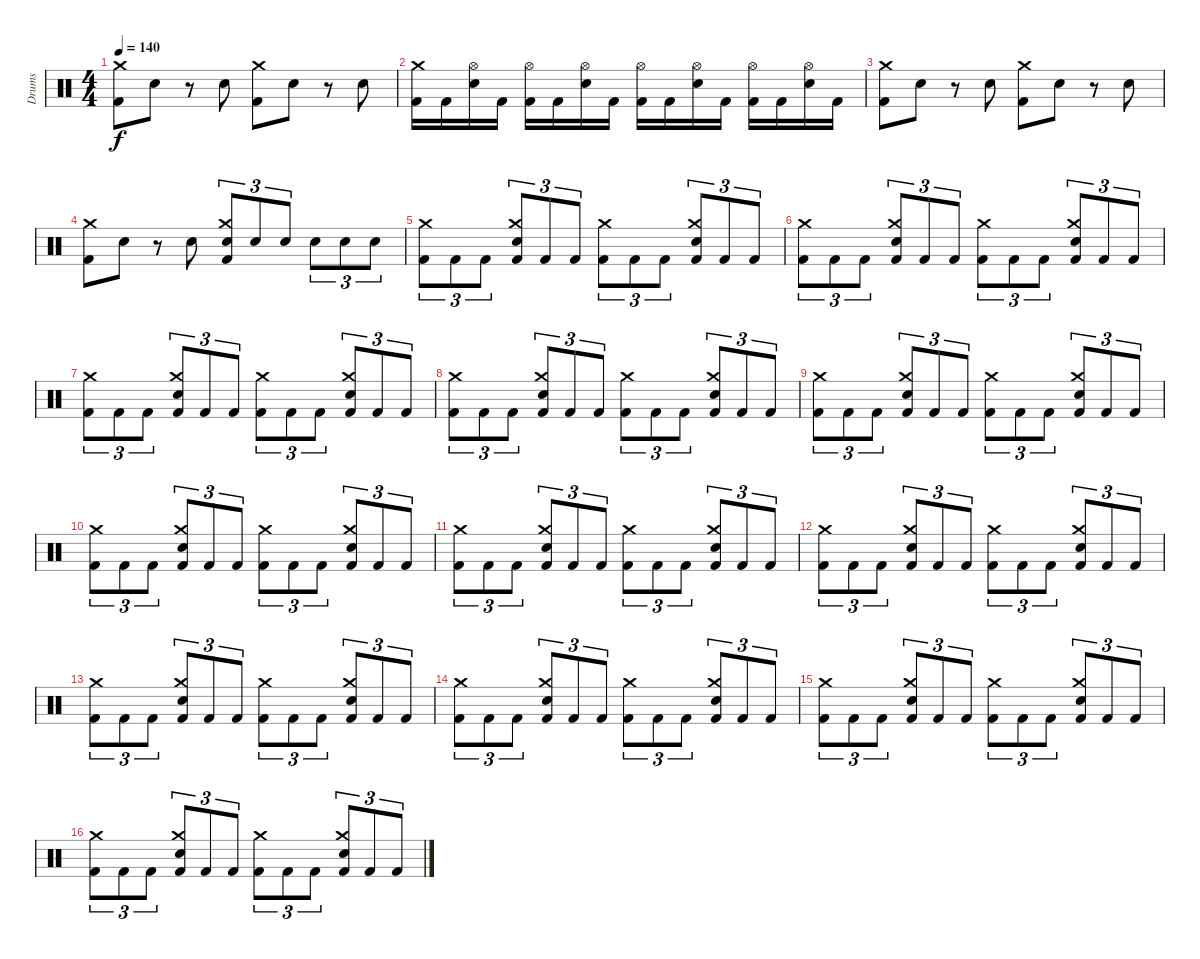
\track ("Drums" "Drums") {instrument percussion}
\staff {score}
\articulation defaults
\ts (4 4)
\tempo 140
\clef neutral
\ks c
("Kick (hit) 2" "Crash medium (hit)").8{dy f} "Electric Snare (hit)".8 r.8 "Electric Snare (hit)".8 ("Kick (hit) 2" "Crash medium (hit)").8 "Electric Snare (hit)".8 r.8 "Electric Snare (hit)".8 |
("Kick (hit) 2" "Crash medium (hit)").16 "Kick (hit) 2".16 ("Electric Snare (hit)" "Hi-Hat (open)").16 "Kick (hit) 2".16 ("Kick (hit) 2" "Hi-Hat (open)").16 "Kick (hit) 2".16 ("Electric Snare (hit)" "Hi-Hat (open)").16 "Kick (hit) 2".16 ("Kick (hit) 2" "Hi-Hat (open)").16 "Kick (hit) 2".16 ("Electric Snare (hit)" "Hi-Hat (open)").16 "Kick (hit) 2".16 ("Kick (hit) 2" "Hi-Hat (open)").16 "Kick (hit) 2".16 ("Electric Snare (hit)" "Hi-Hat (open)").16 "Kick (hit) 2".16 |
("Kick (hit) 2" "Crash medium (hit)").8 "Electric Snare (hit)".8 r.8 "Electric Snare (hit)".8 ("Kick (hit) 2" "Crash medium (hit)").8 "Electric Snare (hit)".8 r.8 "Electric Snare (hit)".8 |
("Kick (hit) 2" "Crash medium (hit)").8 "Electric Snare (hit)".8 r.8 "Electric Snare (hit)".8 ("Kick (hit) 2" "Crash medium (hit)" "Electric Snare (hit)").8{tu (3 2)} "Electric Snare (hit)".8{tu (3 2)} "Electric Snare (hit)".8{tu (3 2)} "Electric Snare (hit)".8{tu (3 2)} "Electric Snare (hit)".8{tu (3 2)} "Electric Snare (hit)".8{tu (3 2)} |
("Kick (hit) 2" "Crash medium (hit)").8{tu (3 2)} "Kick (hit) 2".8{tu (3 2)} "Kick (hit) 2".8{tu (3 2)} ("Electric Snare (hit)" "Kick (hit) 2" "Crash medium (hit)").8{tu (3 2)} "Kick (hit) 2".8{tu (3 2)} "Kick (hit) 2".8{tu (3 2)} ("Kick (hit) 2" "Crash medium (hit)").8{tu (3 2)} "Kick (hit) 2".8{tu (3 2)} "Kick (hit) 2".8{tu (3 2)} ("Electric Snare (hit)" "Kick (hit) 2" "Crash medium (hit)").8{tu (3 2)} "Kick (hit) 2".8{tu (3 2)} "Kick (hit) 2".8{tu (3 2)} |
("Kick (hit) 2" "Crash medium (hit)").8{tu (3 2)} "Kick (hit) 2".8{tu (3 2)} "Kick (hit) 2".8{tu (3 2)} ("Electric Snare (hit)" "Kick (hit) 2" "Crash medium (hit)").8{tu (3 2)} "Kick (hit) 2".8{tu (3 2)} "Kick (hit) 2".8{tu (3 2)} ("Kick (hit) 2" "Crash medium (hit)").8{tu (3 2)} "Kick (hit) 2".8{tu (3 2)} "Kick (hit) 2".8{tu (3 2)} ("Electric Snare (hit)" "Kick (hit) 2" "Crash medium (hit)").8{tu (3 2)} "Kick (hit) 2".8{tu (3 2)} "Kick (hit) 2".8{tu (3 2)} |
("Kick (hit) 2" "Crash medium (hit)").8{tu (3 2)} "Kick (hit) 2".8{tu (3 2)} "Kick (hit) 2".8{tu (3 2)} ("Electric Snare (hit)" "Kick (hit) 2" "Crash medium (hit)").8{tu (3 2)} "Kick (hit) 2".8{tu (3 2)} "Kick (hit) 2".8{tu (3 2)} ("Kick (hit) 2" "Crash medium (hit)").8{tu (3 2)} "Kick (hit) 2".8{tu (3 2)} "Kick (hit) 2".8{tu (3 2)} ("Electric Snare (hit)" "Kick (hit) 2" "Crash medium (hit)").8{tu (3 2)} "Kick (hit) 2".8{tu (3 2)} "Kick (hit) 2".8{tu (3 2)} |
("Kick (hit) 2" "Crash medium (hit)").8{tu (3 2)} "Kick (hit) 2".8{tu (3 2)} "Kick (hit) 2".8{tu (3 2)} ("Electric Snare (hit)" "Kick (hit) 2" "Crash medium (hit)").8{tu (3 2)} "Kick (hit) 2".8{tu (3 2)} "Kick (hit) 2".8{tu (3 2)} ("Kick (hit) 2" "Crash medium (hit)").8{tu (3 2)} "Kick (hit) 2".8{tu (3 2)} "Kick (hit) 2".8{tu (3 2)} ("Electric Snare (hit)" "Kick (hit) 2" "Crash medium (hit)").8{tu (3 2)} "Kick (hit) 2".8{tu (3 2)} "Kick (hit) 2".8{tu (3 2)} |
("Kick (hit) 2" "Crash medium (hit)").8{tu (3 2)} "Kick (hit) 2".8{tu (3 2)} "Kick (hit) 2".8{tu (3 2)} ("Electric Snare (hit)" "Kick (hit) 2" "Crash medium (hit)").8{tu (3 2)} "Kick (hit) 2".8{tu (3 2)} "Kick (hit) 2".8{tu (3 2)} ("Kick (hit) 2" "Crash medium (hit)").8{tu (3 2)} "Kick (hit) 2".8{tu (3 2)} "Kick (hit) 2".8{tu (3 2)} ("Electric Snare (hit)" "Kick (hit) 2" "Crash medium (hit)").8{tu (3 2)} "Kick (hit) 2".8{tu (3 2)} "Kick (hit) 2".8{tu (3 2)} |
("Kick (hit) 2" "Crash medium (hit)").8{tu (3 2)} "Kick (hit) 2".8{tu (3 2)} "Kick (hit) 2".8{tu (3 2)} ("Electric Snare (hit)" "Kick (hit) 2" "Crash medium (hit)").8{tu (3 2)} "Kick (hit) 2".8{tu (3 2)} "Kick (hit) 2".8{tu (3 2)} ("Kick (hit) 2" "Crash medium (hit)").8{tu (3 2)} "Kick (hit) 2".8{tu (3 2)} "Kick (hit) 2".8{tu (3 2)} ("Electric Snare (hit)" "Kick (hit) 2" "Crash medium (hit)").8{tu (3 2)} "Kick (hit) 2".8{tu (3 2)} "Kick (hit) 2".8{tu (3 2)} |
("Kick (hit) 2" "Crash medium (hit)").8{tu (3 2)} "Kick (hit) 2".8{tu (3 2)} "Kick (hit) 2".8{tu (3 2)} ("Electric Snare (hit)" "Kick (hit) 2" "Crash medium (hit)").8{tu (3 2)} "Kick (hit) 2".8{tu (3 2)} "Kick (hit) 2".8{tu (3 2)} ("Kick (hit) 2" "Crash medium (hit)").8{tu (3 2)} "Kick (hit) 2".8{tu (3 2)} "Kick (hit) 2".8{tu (3 2)} ("Electric Snare (hit)" "Kick (hit) 2" "Crash medium (hit)").8{tu (3 2)} "Kick (hit) 2".8{tu (3 2)} "Kick (hit) 2".8{tu (3 2)} |
("Kick (hit) 2" "Crash medium (hit)").8{tu (3 2)} "Kick (hit) 2".8{tu (3 2)} "Kick (hit) 2".8{tu (3 2)} ("Electric Snare (hit)" "Kick (hit) 2" "Crash medium (hit)").8{tu (3 2)} "Kick (hit) 2".8{tu (3 2)} "Kick (hit) 2".8{tu (3 2)} ("Kick (hit) 2" "Crash medium (hit)").8{tu (3 2)} "Kick (hit) 2".8{tu (3 2)} "Kick (hit) 2".8{tu (3 2)} ("Electric Snare (hit)" "Kick (hit) 2" "Crash medium (hit)").8{tu (3 2)} "Kick (hit) 2".8{tu (3 2)} "Kick (hit) 2".8{tu (3 2)} |
("Kick (hit) 2" "Crash medium (hit)").8{tu (3 2)} "Kick (hit) 2".8{tu (3 2)} "Kick (hit) 2".8{tu (3 2)} ("Electric Snare (hit)" "Kick (hit) 2" "Crash medium (hit)").8{tu (3 2)} "Kick (hit) 2".8{tu (3 2)} "Kick (hit) 2".8{tu (3 2)} ("Kick (hit) 2" "Crash medium (hit)").8{tu (3 2)} "Kick (hit) 2".8{tu (3 2)} "Kick (hit) 2".8{tu (3 2)} ("Electric Snare (hit)" "Kick (hit) 2" "Crash medium (hit)").8{tu (3 2)} "Kick (hit) 2".8{tu (3 2)} "Kick (hit) 2".8{tu (3 2)} |
("Kick (hit) 2" "Crash medium (hit)").8{tu (3 2)} "Kick (hit) 2".8{tu (3 2)} "Kick (hit) 2".8{tu (3 2)} ("Electric Snare (hit)" "Kick (hit) 2" "Crash medium (hit)").8{tu (3 2)} "Kick (hit) 2".8{tu (3 2)} "Kick (hit) 2".8{tu (3 2)} ("Kick (hit) 2" "Crash medium (hit)").8{tu (3 2)} "Kick (hit) 2".8{tu (3 2)} "Kick (hit) 2".8{tu (3 2)} ("Electric Snare (hit)" "Kick (hit) 2" "Crash medium (hit)").8{tu (3 2)} "Kick (hit) 2".8{tu (3 2)} "Kick (hit) 2".8{tu (3 2)} |
("Kick (hit) 2" "Crash medium (hit)").8{tu (3 2)} "Kick (hit) 2".8{tu (3 2)} "Kick (hit) 2".8{tu (3 2)} ("Electric Snare (hit)" "Kick (hit) 2" "Crash medium (hit)").8{tu (3 2)} "Kick (hit) 2".8{tu (3 2)} "Kick (hit) 2".8{tu (3 2)} ("Kick (hit) 2" "Crash medium (hit)").8{tu (3 2)} "Kick (hit) 2".8{tu (3 2)} "Kick (hit) 2".8{tu (3 2)} ("Electric Snare (hit)" "Kick (hit) 2" "Crash medium (hit)").8{tu (3 2)} "Kick (hit) 2".8{tu (3 2)} "Kick (hit) 2".8{tu (3 2)} |
("Kick (hit) 2" "Crash medium (hit)").8{tu (3 2)} "Kick (hit) 2".8{tu (3 2)} "Kick (hit) 2".8{tu (3 2)} ("Electric Snare (hit)" "Kick (hit) 2" "Crash medium (hit)").8{tu (3 2)} "Kick (hit) 2".8{tu (3 2)} "Kick (hit) 2".8{tu (3 2)} ("Kick (hit) 2" "Crash medium (hit)").8{tu (3 2)} "Kick (hit) 2".8{tu (3 2)} "Kick (hit) 2".8{tu (3 2)} ("Electric Snare (hit)" "Kick (hit) 2" "Crash medium (hit)").8{tu (3 2)} "Kick (hit) 2".8{tu (3 2)} "Kick (hit) 2".8{tu (3 2)}
